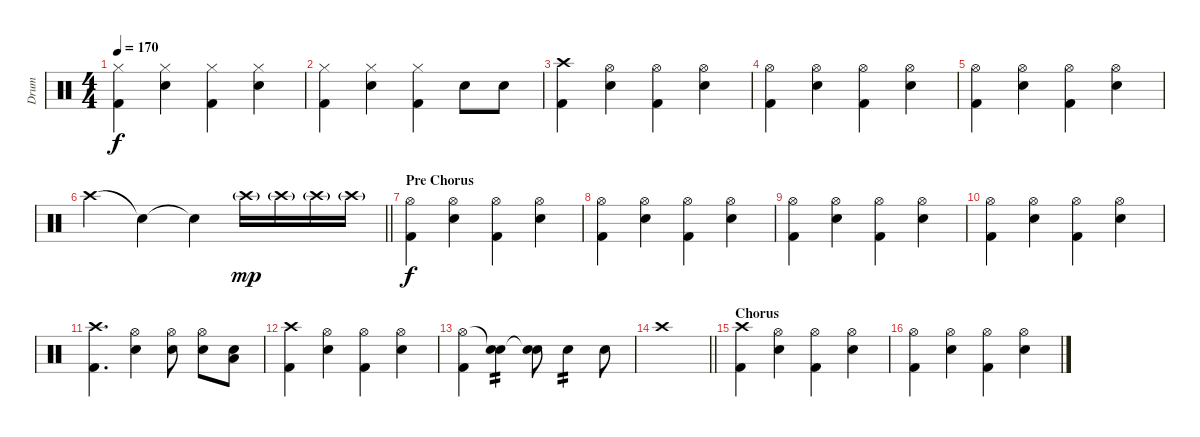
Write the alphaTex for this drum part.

\track ("Drum" "Drum") {instrument percussion}
\staff {score}
\articulation defaults
\ts (4 4)
\tempo 170
\clef neutral
\ks c
("Hi-Hat (closed)" "Kick (hit) 2").4{dy f} ("Hi-Hat (closed)" "Electric Snare (hit)").4 ("Hi-Hat (closed)" "Kick (hit) 2").4 ("Hi-Hat (closed)" "Electric Snare (hit)").4 |
("Hi-Hat (closed)" "Kick (hit) 2").4 ("Hi-Hat (closed)" "Electric Snare (hit)").4 ("Hi-Hat (closed)" "Kick (hit) 2").4 "Electric Snare (hit)".8 "Electric Snare (hit)".8 |
("Crash high (hit)" "Kick (hit) 2").4 ("Hi-Hat (open)" "Electric Snare (hit)").4 ("Hi-Hat (open)" "Kick (hit) 2").4 ("Hi-Hat (open)" "Electric Snare (hit)").4 |
("Hi-Hat (open)" "Kick (hit) 2").4 ("Hi-Hat (open)" "Electric Snare (hit)").4 ("Hi-Hat (open)" "Kick (hit) 2").4 ("Hi-Hat (open)" "Electric Snare (hit)").4 |
("Hi-Hat (open)" "Kick (hit) 2").4 ("Hi-Hat (open)" "Electric Snare (hit)").4 ("Hi-Hat (open)" "Kick (hit) 2").4 ("Hi-Hat (open)" "Electric Snare (hit)").4 |
\barLineRight lightlight "Crash high (hit)".4 "Snare (hit)"{t}.4 "Snare (hit)"{t}.4 "Crash high (hit)"{g}.16{dy mp} "Crash high (hit)"{g}.16 "Crash high (hit)"{g}.16 "Crash high (hit)"{g}.16
|
\section ("" "Pre Chorus")
("Hi-Hat (open)" "Kick (hit) 2").4{dy f} ("Hi-Hat (open)" "Electric Snare (hit)").4 ("Hi-Hat (open)" "Kick (hit) 2").4 ("Hi-Hat (open)" "Electric Snare (hit)").4 |
("Hi-Hat (open)" "Kick (hit) 2").4 ("Hi-Hat (open)" "Electric Snare (hit)").4 ("Hi-Hat (open)" "Kick (hit) 2").4 ("Hi-Hat (open)" "Electric Snare (hit)").4 |
("Hi-Hat (open)" "Kick (hit) 2").4 ("Hi-Hat (open)" "Electric Snare (hit)").4 ("Hi-Hat (open)" "Kick (hit) 2").4 ("Hi-Hat (open)" "Electric Snare (hit)").4 |
("Hi-Hat (open)" "Kick (hit) 2").4 ("Hi-Hat (open)" "Electric Snare (hit)").4 ("Hi-Hat (open)" "Kick (hit) 2").4 ("Hi-Hat (open)" "Electric Snare (hit)").4 |
("Crash high (hit)" "Kick (hit) 2").4{d} ("Hi-Hat (open)" "Electric Snare (hit)").4 ("Hi-Hat (open)" "Electric Snare (hit)").8 ("Hi-Hat (open)" "Electric Snare (hit)").8 ("Low Tom (hit)" "Electric Snare (hit)").8 |
("Crash high (hit)" "Kick (hit) 2").4 ("Hi-Hat (open)" "Electric Snare (hit)").4 ("Hi-Hat (open)" "Kick (hit) 2").4 ("Hi-Hat (open)" "Electric Snare (hit)").4 |
("Hi-Hat (open)" "Kick (hit) 2").4 ("Snare (hit)"{t} "Electric Snare (hit)").4{tp 2} ("Snare (hit)"{t} "Electric Snare (hit)").8 "Electric Snare (hit)".4{tp 2} "Electric Snare (hit)".8 |
\barLineRight lightlight "Crash high (hit)".1
|
\section ("" "Chorus")
("Crash high (hit)" "Kick (hit) 2").4 ("Hi-Hat (open)" "Electric Snare (hit)").4 ("Hi-Hat (open)" "Kick (hit) 2").4 ("Hi-Hat (open)" "Electric Snare (hit)").4 |
("Hi-Hat (open)" "Kick (hit) 2").4 ("Hi-Hat (open)" "Electric Snare (hit)").4 ("Hi-Hat (open)" "Kick (hit) 2").4 ("Hi-Hat (open)" "Electric Snare (hit)").4
